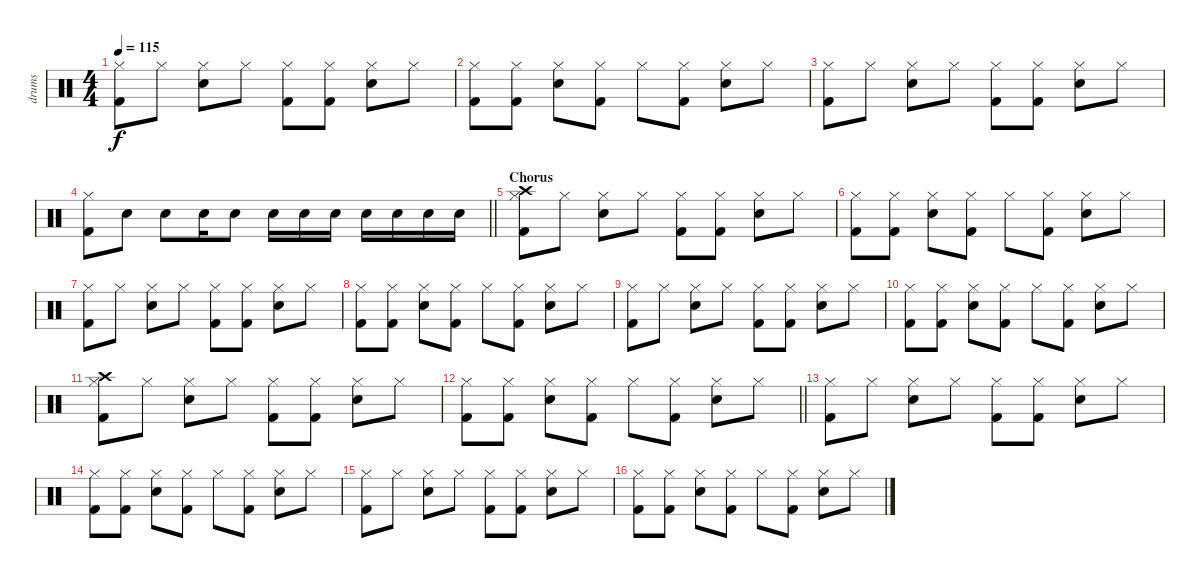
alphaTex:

\track ("drums" "drums") {instrument percussion}
\staff {score}
\articulation defaults
\ts (4 4)
\tempo 115
\clef neutral
\ks c
("Hi-Hat (closed)" "Kick (hit) 2").8{dy f} "Hi-Hat (closed)".8 ("Hi-Hat (closed)" "Electric Snare (hit)").8 "Hi-Hat (closed)".8 ("Hi-Hat (closed)" "Kick (hit) 2").8 ("Hi-Hat (closed)" "Kick (hit) 2").8 ("Hi-Hat (closed)" "Electric Snare (hit)").8 "Hi-Hat (closed)".8 |
("Hi-Hat (closed)" "Kick (hit) 2").8 ("Hi-Hat (closed)" "Kick (hit) 2").8 ("Hi-Hat (closed)" "Electric Snare (hit)").8 ("Hi-Hat (closed)" "Kick (hit) 2").8 "Hi-Hat (closed)".8 ("Hi-Hat (closed)" "Kick (hit) 2").8 ("Hi-Hat (closed)" "Electric Snare (hit)").8 "Hi-Hat (closed)".8 |
("Hi-Hat (closed)" "Kick (hit) 2").8 "Hi-Hat (closed)".8 ("Hi-Hat (closed)" "Electric Snare (hit)").8 "Hi-Hat (closed)".8 ("Hi-Hat (closed)" "Kick (hit) 2").8 ("Hi-Hat (closed)" "Kick (hit) 2").8 ("Hi-Hat (closed)" "Electric Snare (hit)").8 "Hi-Hat (closed)".8 |
\barLineRight lightlight
("Hi-Hat (closed)" "Kick (hit) 2").8 "Electric Snare (hit)".8 "Electric Snare (hit)".8 "Electric Snare (hit)".16 "Electric Snare (hit)".8 "Electric Snare (hit)".16 "Electric Snare (hit)".16 "Electric Snare (hit)".16 "Electric Snare (hit)".16 "Electric Snare (hit)".16 "Electric Snare (hit)".16 "Electric Snare (hit)".16 |
\section ("" "Chorus")
("Hi-Hat (closed)" "Crash high (hit)" "Kick (hit) 2").8 "Hi-Hat (closed)".8 ("Hi-Hat (closed)" "Electric Snare (hit)").8 "Hi-Hat (closed)".8 ("Hi-Hat (closed)" "Kick (hit) 2").8 ("Hi-Hat (closed)" "Kick (hit) 2").8 ("Hi-Hat (closed)" "Electric Snare (hit)").8 "Hi-Hat (closed)".8 |
("Hi-Hat (closed)" "Kick (hit) 2").8 ("Hi-Hat (closed)" "Kick (hit) 2").8 ("Hi-Hat (closed)" "Electric Snare (hit)").8 ("Hi-Hat (closed)" "Kick (hit) 2").8 "Hi-Hat (closed)".8 ("Hi-Hat (closed)" "Kick (hit) 2").8 ("Hi-Hat (closed)" "Electric Snare (hit)").8 "Hi-Hat (closed)".8 |
("Hi-Hat (closed)" "Kick (hit) 2").8 "Hi-Hat (closed)".8 ("Hi-Hat (closed)" "Electric Snare (hit)").8 "Hi-Hat (closed)".8 ("Hi-Hat (closed)" "Kick (hit) 2").8 ("Hi-Hat (closed)" "Kick (hit) 2").8 ("Hi-Hat (closed)" "Electric Snare (hit)").8 "Hi-Hat (closed)".8 |
("Hi-Hat (closed)" "Kick (hit) 2").8 ("Hi-Hat (closed)" "Kick (hit) 2").8 ("Hi-Hat (closed)" "Electric Snare (hit)").8 ("Hi-Hat (closed)" "Kick (hit) 2").8 "Hi-Hat (closed)".8 ("Hi-Hat (closed)" "Kick (hit) 2").8 ("Hi-Hat (closed)" "Electric Snare (hit)").8 "Hi-Hat (closed)".8 |
("Hi-Hat (closed)" "Kick (hit) 2").8 "Hi-Hat (closed)".8 ("Hi-Hat (closed)" "Electric Snare (hit)").8 "Hi-Hat (closed)".8 ("Hi-Hat (closed)" "Kick (hit) 2").8 ("Hi-Hat (closed)" "Kick (hit) 2").8 ("Hi-Hat (closed)" "Electric Snare (hit)").8 "Hi-Hat (closed)".8 |
("Hi-Hat (closed)" "Kick (hit) 2").8 ("Hi-Hat (closed)" "Kick (hit) 2").8 ("Hi-Hat (closed)" "Electric Snare (hit)").8 ("Hi-Hat (closed)" "Kick (hit) 2").8 "Hi-Hat (closed)".8 ("Hi-Hat (closed)" "Kick (hit) 2").8 ("Hi-Hat (closed)" "Electric Snare (hit)").8 "Hi-Hat (closed)".8 |
("Hi-Hat (closed)" "Crash high (hit)" "Kick (hit) 2").8 "Hi-Hat (closed)".8 ("Hi-Hat (closed)" "Electric Snare (hit)").8 "Hi-Hat (closed)".8 ("Hi-Hat (closed)" "Kick (hit) 2").8 ("Hi-Hat (closed)" "Kick (hit) 2").8 ("Hi-Hat (closed)" "Electric Snare (hit)").8 "Hi-Hat (closed)".8 |
\barLineRight lightlight
("Hi-Hat (closed)" "Kick (hit) 2").8 ("Hi-Hat (closed)" "Kick (hit) 2").8 ("Hi-Hat (closed)" "Electric Snare (hit)").8 ("Hi-Hat (closed)" "Kick (hit) 2").8 "Hi-Hat (closed)".8 ("Hi-Hat (closed)" "Kick (hit) 2").8 ("Hi-Hat (closed)" "Electric Snare (hit)").8 "Hi-Hat (closed)".8 |
("Hi-Hat (closed)" "Kick (hit) 2").8 "Hi-Hat (closed)".8 ("Hi-Hat (closed)" "Electric Snare (hit)").8 "Hi-Hat (closed)".8 ("Hi-Hat (closed)" "Kick (hit) 2").8 ("Hi-Hat (closed)" "Kick (hit) 2").8 ("Hi-Hat (closed)" "Electric Snare (hit)").8 "Hi-Hat (closed)".8 |
("Hi-Hat (closed)" "Kick (hit) 2").8 ("Hi-Hat (closed)" "Kick (hit) 2").8 ("Hi-Hat (closed)" "Electric Snare (hit)").8 ("Hi-Hat (closed)" "Kick (hit) 2").8 "Hi-Hat (closed)".8 ("Hi-Hat (closed)" "Kick (hit) 2").8 ("Hi-Hat (closed)" "Electric Snare (hit)").8 "Hi-Hat (closed)".8 |
("Hi-Hat (closed)" "Kick (hit) 2").8 "Hi-Hat (closed)".8 ("Hi-Hat (closed)" "Electric Snare (hit)").8 "Hi-Hat (closed)".8 ("Hi-Hat (closed)" "Kick (hit) 2").8 ("Hi-Hat (closed)" "Kick (hit) 2").8 ("Hi-Hat (closed)" "Electric Snare (hit)").8 "Hi-Hat (closed)".8 |
("Hi-Hat (closed)" "Kick (hit) 2").8 ("Hi-Hat (closed)" "Kick (hit) 2").8 ("Hi-Hat (closed)" "Electric Snare (hit)").8 ("Hi-Hat (closed)" "Kick (hit) 2").8 "Hi-Hat (closed)".8 ("Hi-Hat (closed)" "Kick (hit) 2").8 ("Hi-Hat (closed)" "Electric Snare (hit)").8 "Hi-Hat (closed)".8
